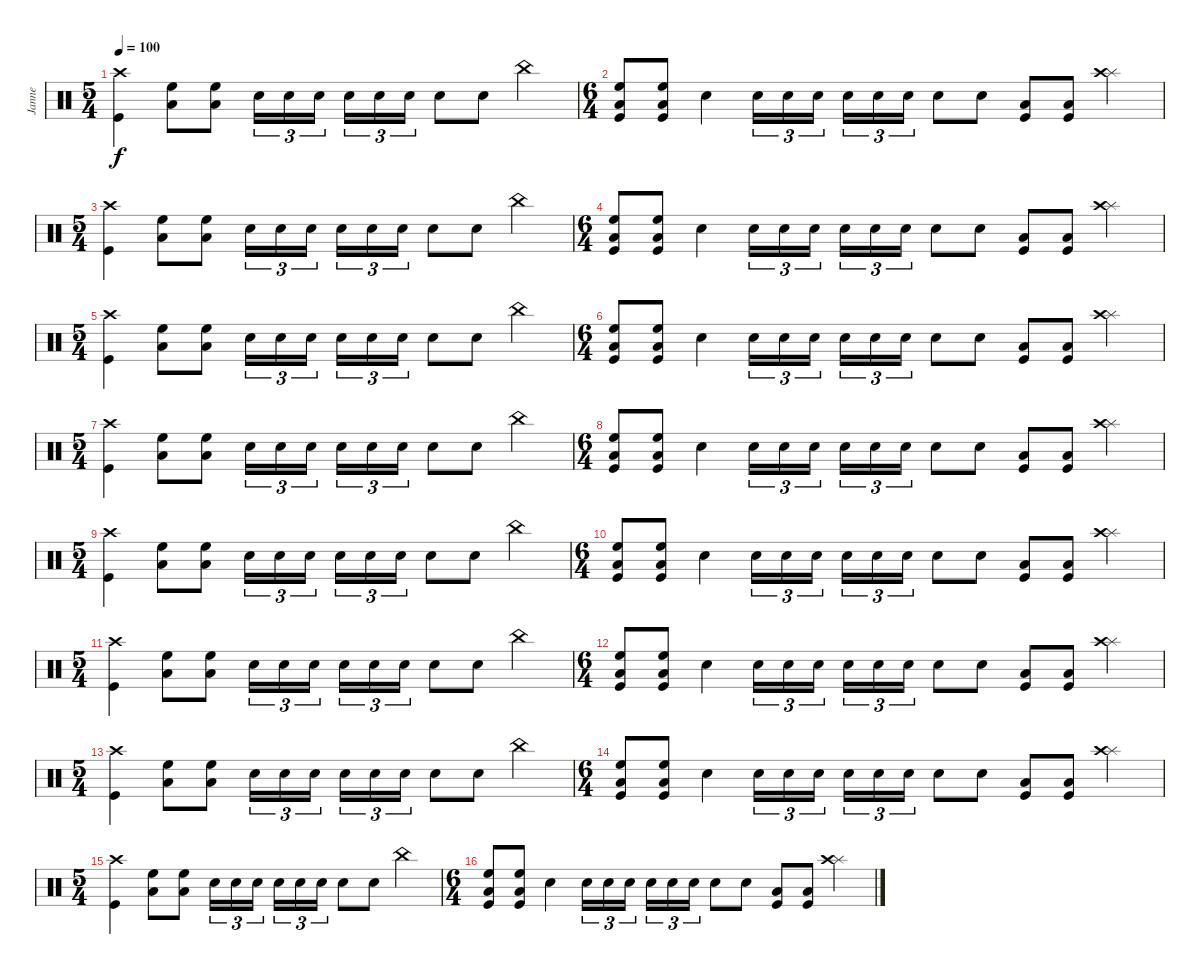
\track ("Janne" "Janne") {instrument percussion}
\staff {score}
\articulation defaults
\ts (5 4)
\tempo 100
\clef neutral
\ks c
("Crash high (hit)" "Kick (hit)").4{dy f} ("Low Floor Tom (hit)" "High Floor Tom (hit)").8 ("Low Floor Tom (hit)" "High Floor Tom (hit)").8 "Electric Snare (hit)".16{tu (3 2)} "Electric Snare (hit)".16{tu (3 2)} "Electric Snare (hit)".16{tu (3 2)} "Electric Snare (hit)".16{tu (3 2)} "Electric Snare (hit)".16{tu (3 2)} "Electric Snare (hit)".16{tu (3 2)} "Electric Snare (hit)".8 "Electric Snare (hit)".8 "China (hit)".4 |
\ts (6 4)
("High Floor Tom (hit)" "Low Floor Tom (hit)" "Kick (hit)").8 ("High Floor Tom (hit)" "Low Floor Tom (hit)" "Kick (hit)").8 "Electric Snare (hit)".4 "Electric Snare (hit)".16{tu (3 2)} "Electric Snare (hit)".16{tu (3 2)} "Electric Snare (hit)".16{tu (3 2)} "Electric Snare (hit)".16{tu (3 2)} "Electric Snare (hit)".16{tu (3 2)} "Electric Snare (hit)".16{tu (3 2)} "Electric Snare (hit)".8 "Electric Snare (hit)".8 ("Kick (hit)" "Low Floor Tom (hit)").8 ("Kick (hit)" "Low Floor Tom (hit)").8 ("Splash (hit)" "Crash high (hit)").4 |
\ts (5 4)
("Crash high (hit)" "Kick (hit)").4 ("Low Floor Tom (hit)" "High Floor Tom (hit)").8 ("Low Floor Tom (hit)" "High Floor Tom (hit)").8 "Electric Snare (hit)".16{tu (3 2)} "Electric Snare (hit)".16{tu (3 2)} "Electric Snare (hit)".16{tu (3 2)} "Electric Snare (hit)".16{tu (3 2)} "Electric Snare (hit)".16{tu (3 2)} "Electric Snare (hit)".16{tu (3 2)} "Electric Snare (hit)".8 "Electric Snare (hit)".8 "China (hit)".4 |
\ts (6 4)
("High Floor Tom (hit)" "Low Floor Tom (hit)" "Kick (hit)").8 ("High Floor Tom (hit)" "Low Floor Tom (hit)" "Kick (hit)").8 "Electric Snare (hit)".4 "Electric Snare (hit)".16{tu (3 2)} "Electric Snare (hit)".16{tu (3 2)} "Electric Snare (hit)".16{tu (3 2)} "Electric Snare (hit)".16{tu (3 2)} "Electric Snare (hit)".16{tu (3 2)} "Electric Snare (hit)".16{tu (3 2)} "Electric Snare (hit)".8 "Electric Snare (hit)".8 ("Kick (hit)" "Low Floor Tom (hit)").8 ("Kick (hit)" "Low Floor Tom (hit)").8 ("Splash (hit)" "Crash high (hit)").4 |
\ts (5 4)
("Crash high (hit)" "Kick (hit)").4 ("Low Floor Tom (hit)" "High Floor Tom (hit)").8 ("Low Floor Tom (hit)" "High Floor Tom (hit)").8 "Electric Snare (hit)".16{tu (3 2)} "Electric Snare (hit)".16{tu (3 2)} "Electric Snare (hit)".16{tu (3 2)} "Electric Snare (hit)".16{tu (3 2)} "Electric Snare (hit)".16{tu (3 2)} "Electric Snare (hit)".16{tu (3 2)} "Electric Snare (hit)".8 "Electric Snare (hit)".8 "China (hit)".4 |
\ts (6 4)
("High Floor Tom (hit)" "Low Floor Tom (hit)" "Kick (hit)").8 ("High Floor Tom (hit)" "Low Floor Tom (hit)" "Kick (hit)").8 "Electric Snare (hit)".4 "Electric Snare (hit)".16{tu (3 2)} "Electric Snare (hit)".16{tu (3 2)} "Electric Snare (hit)".16{tu (3 2)} "Electric Snare (hit)".16{tu (3 2)} "Electric Snare (hit)".16{tu (3 2)} "Electric Snare (hit)".16{tu (3 2)} "Electric Snare (hit)".8 "Electric Snare (hit)".8 ("Kick (hit)" "Low Floor Tom (hit)").8 ("Kick (hit)" "Low Floor Tom (hit)").8 ("Splash (hit)" "Crash high (hit)").4 |
\ts (5 4)
("Crash high (hit)" "Kick (hit)").4 ("Low Floor Tom (hit)" "High Floor Tom (hit)").8 ("Low Floor Tom (hit)" "High Floor Tom (hit)").8 "Electric Snare (hit)".16{tu (3 2)} "Electric Snare (hit)".16{tu (3 2)} "Electric Snare (hit)".16{tu (3 2)} "Electric Snare (hit)".16{tu (3 2)} "Electric Snare (hit)".16{tu (3 2)} "Electric Snare (hit)".16{tu (3 2)} "Electric Snare (hit)".8 "Electric Snare (hit)".8 "China (hit)".4 |
\ts (6 4)
("High Floor Tom (hit)" "Low Floor Tom (hit)" "Kick (hit)").8 ("High Floor Tom (hit)" "Low Floor Tom (hit)" "Kick (hit)").8 "Electric Snare (hit)".4 "Electric Snare (hit)".16{tu (3 2)} "Electric Snare (hit)".16{tu (3 2)} "Electric Snare (hit)".16{tu (3 2)} "Electric Snare (hit)".16{tu (3 2)} "Electric Snare (hit)".16{tu (3 2)} "Electric Snare (hit)".16{tu (3 2)} "Electric Snare (hit)".8 "Electric Snare (hit)".8 ("Kick (hit)" "Low Floor Tom (hit)").8 ("Kick (hit)" "Low Floor Tom (hit)").8 ("Splash (hit)" "Crash high (hit)").4 |
\ts (5 4)
("Crash high (hit)" "Kick (hit)").4 ("Low Floor Tom (hit)" "High Floor Tom (hit)").8 ("Low Floor Tom (hit)" "High Floor Tom (hit)").8 "Electric Snare (hit)".16{tu (3 2)} "Electric Snare (hit)".16{tu (3 2)} "Electric Snare (hit)".16{tu (3 2)} "Electric Snare (hit)".16{tu (3 2)} "Electric Snare (hit)".16{tu (3 2)} "Electric Snare (hit)".16{tu (3 2)} "Electric Snare (hit)".8 "Electric Snare (hit)".8 "China (hit)".4 |
\ts (6 4)
("High Floor Tom (hit)" "Low Floor Tom (hit)" "Kick (hit)").8 ("High Floor Tom (hit)" "Low Floor Tom (hit)" "Kick (hit)").8 "Electric Snare (hit)".4 "Electric Snare (hit)".16{tu (3 2)} "Electric Snare (hit)".16{tu (3 2)} "Electric Snare (hit)".16{tu (3 2)} "Electric Snare (hit)".16{tu (3 2)} "Electric Snare (hit)".16{tu (3 2)} "Electric Snare (hit)".16{tu (3 2)} "Electric Snare (hit)".8 "Electric Snare (hit)".8 ("Kick (hit)" "Low Floor Tom (hit)").8 ("Kick (hit)" "Low Floor Tom (hit)").8 ("Splash (hit)" "Crash high (hit)").4 |
\ts (5 4)
("Crash high (hit)" "Kick (hit)").4 ("Low Floor Tom (hit)" "High Floor Tom (hit)").8 ("Low Floor Tom (hit)" "High Floor Tom (hit)").8 "Electric Snare (hit)".16{tu (3 2)} "Electric Snare (hit)".16{tu (3 2)} "Electric Snare (hit)".16{tu (3 2)} "Electric Snare (hit)".16{tu (3 2)} "Electric Snare (hit)".16{tu (3 2)} "Electric Snare (hit)".16{tu (3 2)} "Electric Snare (hit)".8 "Electric Snare (hit)".8 "China (hit)".4 |
\ts (6 4)
("High Floor Tom (hit)" "Low Floor Tom (hit)" "Kick (hit)").8 ("High Floor Tom (hit)" "Low Floor Tom (hit)" "Kick (hit)").8 "Electric Snare (hit)".4 "Electric Snare (hit)".16{tu (3 2)} "Electric Snare (hit)".16{tu (3 2)} "Electric Snare (hit)".16{tu (3 2)} "Electric Snare (hit)".16{tu (3 2)} "Electric Snare (hit)".16{tu (3 2)} "Electric Snare (hit)".16{tu (3 2)} "Electric Snare (hit)".8 "Electric Snare (hit)".8 ("Kick (hit)" "Low Floor Tom (hit)").8 ("Kick (hit)" "Low Floor Tom (hit)").8 ("Splash (hit)" "Crash high (hit)").4 |
\ts (5 4)
("Crash high (hit)" "Kick (hit)").4 ("Low Floor Tom (hit)" "High Floor Tom (hit)").8 ("Low Floor Tom (hit)" "High Floor Tom (hit)").8 "Electric Snare (hit)".16{tu (3 2)} "Electric Snare (hit)".16{tu (3 2)} "Electric Snare (hit)".16{tu (3 2)} "Electric Snare (hit)".16{tu (3 2)} "Electric Snare (hit)".16{tu (3 2)} "Electric Snare (hit)".16{tu (3 2)} "Electric Snare (hit)".8 "Electric Snare (hit)".8 "China (hit)".4 |
\ts (6 4)
("High Floor Tom (hit)" "Low Floor Tom (hit)" "Kick (hit)").8 ("High Floor Tom (hit)" "Low Floor Tom (hit)" "Kick (hit)").8 "Electric Snare (hit)".4 "Electric Snare (hit)".16{tu (3 2)} "Electric Snare (hit)".16{tu (3 2)} "Electric Snare (hit)".16{tu (3 2)} "Electric Snare (hit)".16{tu (3 2)} "Electric Snare (hit)".16{tu (3 2)} "Electric Snare (hit)".16{tu (3 2)} "Electric Snare (hit)".8 "Electric Snare (hit)".8 ("Kick (hit)" "Low Floor Tom (hit)").8 ("Kick (hit)" "Low Floor Tom (hit)").8 ("Splash (hit)" "Crash high (hit)").4 |
\ts (5 4)
("Crash high (hit)" "Kick (hit)").4 ("Low Floor Tom (hit)" "High Floor Tom (hit)").8 ("Low Floor Tom (hit)" "High Floor Tom (hit)").8 "Electric Snare (hit)".16{tu (3 2)} "Electric Snare (hit)".16{tu (3 2)} "Electric Snare (hit)".16{tu (3 2)} "Electric Snare (hit)".16{tu (3 2)} "Electric Snare (hit)".16{tu (3 2)} "Electric Snare (hit)".16{tu (3 2)} "Electric Snare (hit)".8 "Electric Snare (hit)".8 "China (hit)".4 |
\ts (6 4)
("High Floor Tom (hit)" "Low Floor Tom (hit)" "Kick (hit)").8 ("High Floor Tom (hit)" "Low Floor Tom (hit)" "Kick (hit)").8 "Electric Snare (hit)".4 "Electric Snare (hit)".16{tu (3 2)} "Electric Snare (hit)".16{tu (3 2)} "Electric Snare (hit)".16{tu (3 2)} "Electric Snare (hit)".16{tu (3 2)} "Electric Snare (hit)".16{tu (3 2)} "Electric Snare (hit)".16{tu (3 2)} "Electric Snare (hit)".8 "Electric Snare (hit)".8 ("Kick (hit)" "Low Floor Tom (hit)").8 ("Kick (hit)" "Low Floor Tom (hit)").8 ("Splash (hit)" "Crash high (hit)").4
